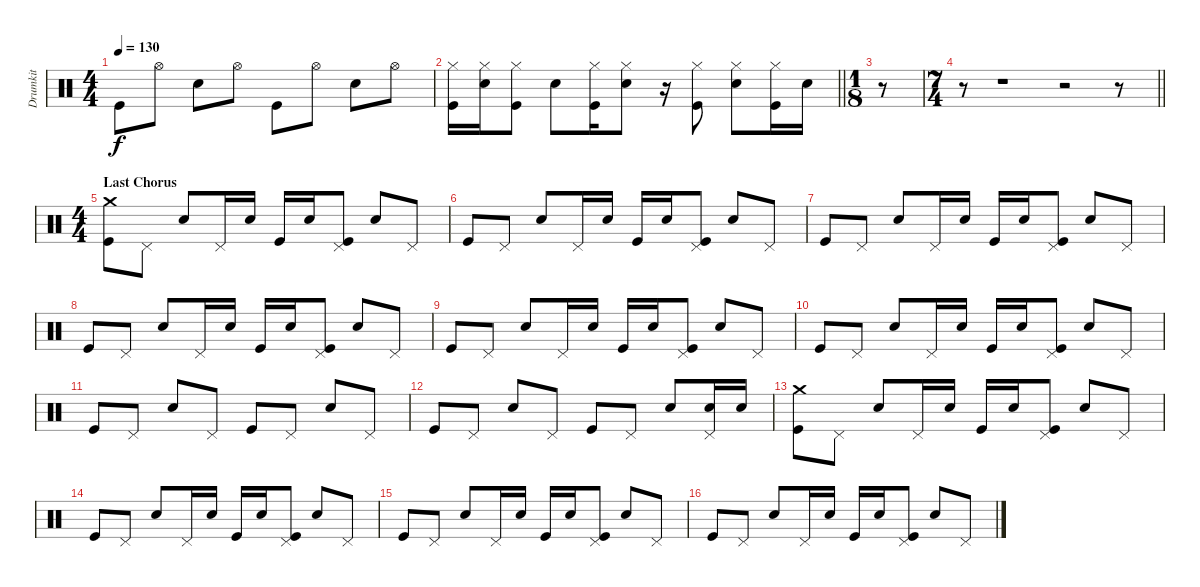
\track ("Drumkit" "Drumkit") {instrument percussion}
\staff {score}
\articulation defaults
\ts (4 4)
\tempo 130
\clef neutral
\ks c "Kick (hit)".8{dy f} "Hi-Hat (open)".8 "Snare (hit) 2".8 "Hi-Hat (open)".8 "Kick (hit)".8 "Hi-Hat (open)".8 "Snare (hit) 2".8 "Hi-Hat (open)".8
|
\barLineRight lightlight
("Kick (hit)" "Hi-Hat (closed)").16 ("Snare (hit) 2" "Hi-Hat (closed)").16 ("Kick (hit)" "Hi-Hat (closed)").8 "Snare (hit) 2".8 ("Kick (hit)" "Hi-Hat (closed)").16 ("Snare (hit) 2" "Hi-Hat (closed)").8 r.16 ("Kick (hit)" "Hi-Hat (closed)").8 ("Snare (hit) 2" "Hi-Hat (closed)").8 ("Kick (hit)" "Hi-Hat (closed)").16 "Snare (hit) 2".16 |
\ts (1 8)
r.8 |
\ts (7 4)
\barLineRight lightlight
r.8 r.1 r.2 r.8 |
\ts (4 4)
\section ("" "Last Chorus")
("Kick (hit)" "Crash medium (hit)").8 "Pedal Hi-Hat (hit)".8 "Snare (hit) 2".8 "Pedal Hi-Hat (hit)".16 "Snare (hit) 2".16 "Kick (hit)".16 "Snare (hit) 2".16 ("Kick (hit)" "Pedal Hi-Hat (hit)").8 "Snare (hit) 2".8 "Pedal Hi-Hat (hit)".8 |
"Kick (hit)".8 "Pedal Hi-Hat (hit)".8 "Snare (hit) 2".8 "Pedal Hi-Hat (hit)".16 "Snare (hit) 2".16 "Kick (hit)".16 "Snare (hit) 2".16 ("Kick (hit)" "Pedal Hi-Hat (hit)").8 "Snare (hit) 2".8 "Pedal Hi-Hat (hit)".8 |
"Kick (hit)".8 "Pedal Hi-Hat (hit)".8 "Snare (hit) 2".8 "Pedal Hi-Hat (hit)".16 "Snare (hit) 2".16 "Kick (hit)".16 "Snare (hit) 2".16 ("Kick (hit)" "Pedal Hi-Hat (hit)").8 "Snare (hit) 2".8 "Pedal Hi-Hat (hit)".8 |
"Kick (hit)".8 "Pedal Hi-Hat (hit)".8 "Snare (hit) 2".8 "Pedal Hi-Hat (hit)".16 "Snare (hit) 2".16 "Kick (hit)".16 "Snare (hit) 2".16 ("Kick (hit)" "Pedal Hi-Hat (hit)").8 "Snare (hit) 2".8 "Pedal Hi-Hat (hit)".8 |
"Kick (hit)".8 "Pedal Hi-Hat (hit)".8 "Snare (hit) 2".8 "Pedal Hi-Hat (hit)".16 "Snare (hit) 2".16 "Kick (hit)".16 "Snare (hit) 2".16 ("Kick (hit)" "Pedal Hi-Hat (hit)").8 "Snare (hit) 2".8 "Pedal Hi-Hat (hit)".8 |
"Kick (hit)".8 "Pedal Hi-Hat (hit)".8 "Snare (hit) 2".8 "Pedal Hi-Hat (hit)".16 "Snare (hit) 2".16 "Kick (hit)".16 "Snare (hit) 2".16 ("Kick (hit)" "Pedal Hi-Hat (hit)").8 "Snare (hit) 2".8 "Pedal Hi-Hat (hit)".8 |
"Kick (hit)".8 "Pedal Hi-Hat (hit)".8 "Snare (hit) 2".8 "Pedal Hi-Hat (hit)".8 "Kick (hit)".8 "Pedal Hi-Hat (hit)".8 "Snare (hit) 2".8 "Pedal Hi-Hat (hit)".8 |
"Kick (hit)".8 "Pedal Hi-Hat (hit)".8 "Snare (hit) 2".8 "Pedal Hi-Hat (hit)".8 "Kick (hit)".8 "Pedal Hi-Hat (hit)".8 "Snare (hit) 2".8 ("Snare (hit) 2" "Pedal Hi-Hat (hit)").16 "Snare (hit) 2".16 |
("Kick (hit)" "Crash medium (hit)").8 "Pedal Hi-Hat (hit)".8 "Snare (hit) 2".8 "Pedal Hi-Hat (hit)".16 "Snare (hit) 2".16 "Kick (hit)".16 "Snare (hit) 2".16 ("Kick (hit)" "Pedal Hi-Hat (hit)").8 "Snare (hit) 2".8 "Pedal Hi-Hat (hit)".8 |
"Kick (hit)".8 "Pedal Hi-Hat (hit)".8 "Snare (hit) 2".8 "Pedal Hi-Hat (hit)".16 "Snare (hit) 2".16 "Kick (hit)".16 "Snare (hit) 2".16 ("Kick (hit)" "Pedal Hi-Hat (hit)").8 "Snare (hit) 2".8 "Pedal Hi-Hat (hit)".8 |
"Kick (hit)".8 "Pedal Hi-Hat (hit)".8 "Snare (hit) 2".8 "Pedal Hi-Hat (hit)".16 "Snare (hit) 2".16 "Kick (hit)".16 "Snare (hit) 2".16 ("Kick (hit)" "Pedal Hi-Hat (hit)").8 "Snare (hit) 2".8 "Pedal Hi-Hat (hit)".8 |
"Kick (hit)".8 "Pedal Hi-Hat (hit)".8 "Snare (hit) 2".8 "Pedal Hi-Hat (hit)".16 "Snare (hit) 2".16 "Kick (hit)".16 "Snare (hit) 2".16 ("Kick (hit)" "Pedal Hi-Hat (hit)").8 "Snare (hit) 2".8 "Pedal Hi-Hat (hit)".8
